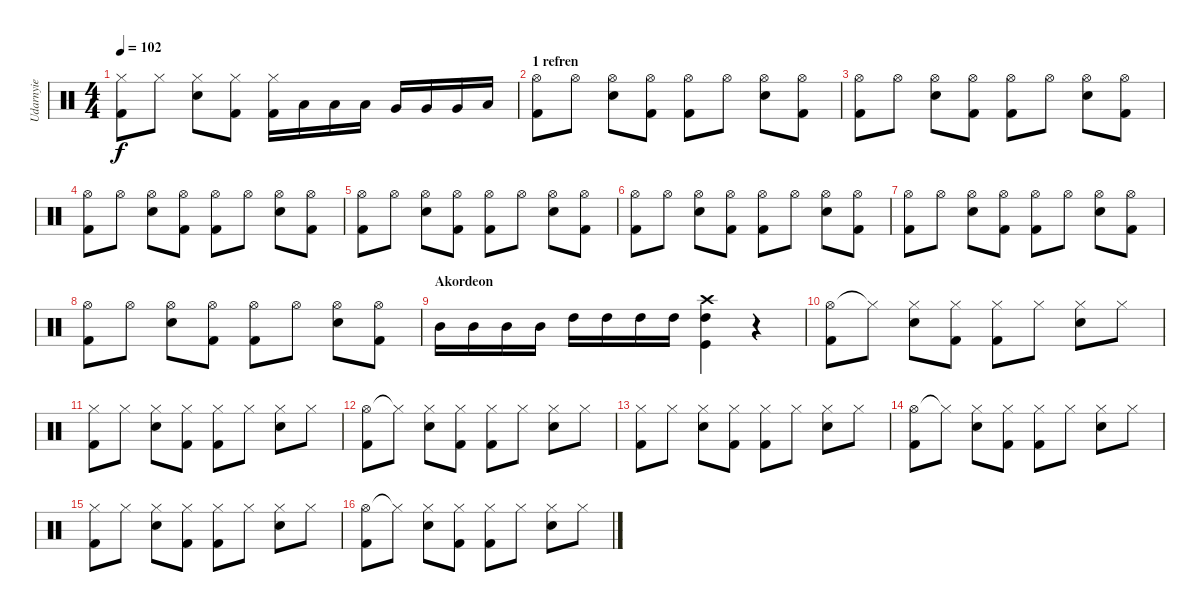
\track ("Udarnyie" "Udarnyie") {instrument percussion}
\staff {score}
\articulation defaults
\ts (4 4)
\tempo 102
\clef neutral
\ks c
("Hi-Hat (closed)" "Kick (hit) 2").8{dy f} "Hi-Hat (closed)".8 ("Hi-Hat (closed)" "Snare (hit) 2").8 ("Hi-Hat (closed)" "Kick (hit) 2").8 ("Hi-Hat (closed)" "Kick (hit) 2").16 "Low Tom (hit)".16 "Low Tom (hit)".16 "Low Tom (hit)".16 "Very Low Tom (hit)".16 "Very Low Tom (hit)".16 "Very Low Tom (hit)".16 "Low Tom (hit)".16 |
\section ("" "1 refren")
("Hi-Hat (open)" "Kick (hit) 2").8 "Hi-Hat (open)".8 ("Hi-Hat (open)" "Snare (hit) 2").8 ("Hi-Hat (open)" "Kick (hit) 2").8 ("Hi-Hat (open)" "Kick (hit) 2").8 "Hi-Hat (open)".8 ("Hi-Hat (open)" "Snare (hit) 2").8 ("Hi-Hat (open)" "Kick (hit) 2").8 |
("Hi-Hat (open)" "Kick (hit) 2").8 "Hi-Hat (open)".8 ("Hi-Hat (open)" "Snare (hit) 2").8 ("Hi-Hat (open)" "Kick (hit) 2").8 ("Hi-Hat (open)" "Kick (hit) 2").8 "Hi-Hat (open)".8 ("Hi-Hat (open)" "Snare (hit) 2").8 ("Hi-Hat (open)" "Kick (hit) 2").8 |
("Hi-Hat (open)" "Kick (hit) 2").8 "Hi-Hat (open)".8 ("Hi-Hat (open)" "Snare (hit) 2").8 ("Hi-Hat (open)" "Kick (hit) 2").8 ("Hi-Hat (open)" "Kick (hit) 2").8 "Hi-Hat (open)".8 ("Hi-Hat (open)" "Snare (hit) 2").8 ("Hi-Hat (open)" "Kick (hit) 2").8 |
("Hi-Hat (open)" "Kick (hit) 2").8 "Hi-Hat (open)".8 ("Hi-Hat (open)" "Snare (hit) 2").8 ("Hi-Hat (open)" "Kick (hit) 2").8 ("Hi-Hat (open)" "Kick (hit) 2").8 "Hi-Hat (open)".8 ("Hi-Hat (open)" "Snare (hit) 2").8 ("Hi-Hat (open)" "Kick (hit) 2").8 |
("Hi-Hat (open)" "Kick (hit) 2").8 "Hi-Hat (open)".8 ("Hi-Hat (open)" "Snare (hit) 2").8 ("Hi-Hat (open)" "Kick (hit) 2").8 ("Hi-Hat (open)" "Kick (hit) 2").8 "Hi-Hat (open)".8 ("Hi-Hat (open)" "Snare (hit) 2").8 ("Hi-Hat (open)" "Kick (hit) 2").8 |
("Hi-Hat (open)" "Kick (hit) 2").8 "Hi-Hat (open)".8 ("Hi-Hat (open)" "Snare (hit) 2").8 ("Hi-Hat (open)" "Kick (hit) 2").8 ("Hi-Hat (open)" "Kick (hit) 2").8 "Hi-Hat (open)".8 ("Hi-Hat (open)" "Snare (hit) 2").8 ("Hi-Hat (open)" "Kick (hit) 2").8 |
("Hi-Hat (open)" "Kick (hit) 2").8 "Hi-Hat (open)".8 ("Hi-Hat (open)" "Snare (hit) 2").8 ("Hi-Hat (open)" "Kick (hit) 2").8 ("Hi-Hat (open)" "Kick (hit) 2").8 "Hi-Hat (open)".8 ("Hi-Hat (open)" "Snare (hit) 2").8 ("Hi-Hat (open)" "Kick (hit) 2").8 |
\section ("" "Akordeon")
"Mid Tom (hit)".16 "Mid Tom (hit)".16 "Mid Tom (hit)".16 "Mid Tom (hit)".16 "High Tom (hit)".16 "High Tom (hit)".16 "High Tom (hit)".16 "High Tom (hit)".16 ("Kick (hit)" "High Tom (hit)" "Crash high (hit)").4 r.4 |
("Hi-Hat (open)" "Kick (hit) 2").8 "Hi-Hat (closed)"{t}.8 ("Hi-Hat (closed)" "Snare (hit) 2").8 ("Hi-Hat (closed)" "Kick (hit) 2").8 ("Hi-Hat (closed)" "Kick (hit) 2").8 "Hi-Hat (closed)".8 ("Hi-Hat (closed)" "Snare (hit) 2").8 "Hi-Hat (closed)".8 |
("Hi-Hat (closed)" "Kick (hit) 2").8 "Hi-Hat (closed)".8 ("Hi-Hat (closed)" "Snare (hit) 2").8 ("Hi-Hat (closed)" "Kick (hit) 2").8 ("Hi-Hat (closed)" "Kick (hit) 2").8 "Hi-Hat (closed)".8 ("Hi-Hat (closed)" "Snare (hit) 2").8 "Hi-Hat (closed)".8 |
("Hi-Hat (open)" "Kick (hit) 2").8 "Hi-Hat (closed)"{t}.8 ("Hi-Hat (closed)" "Snare (hit) 2").8 ("Hi-Hat (closed)" "Kick (hit) 2").8 ("Hi-Hat (closed)" "Kick (hit) 2").8 "Hi-Hat (closed)".8 ("Hi-Hat (closed)" "Snare (hit) 2").8 "Hi-Hat (closed)".8 |
("Hi-Hat (closed)" "Kick (hit) 2").8 "Hi-Hat (closed)".8 ("Hi-Hat (closed)" "Snare (hit) 2").8 ("Hi-Hat (closed)" "Kick (hit) 2").8 ("Hi-Hat (closed)" "Kick (hit) 2").8 "Hi-Hat (closed)".8 ("Hi-Hat (closed)" "Snare (hit) 2").8 "Hi-Hat (closed)".8 |
("Hi-Hat (open)" "Kick (hit) 2").8 "Hi-Hat (closed)"{t}.8 ("Hi-Hat (closed)" "Snare (hit) 2").8 ("Hi-Hat (closed)" "Kick (hit) 2").8 ("Hi-Hat (closed)" "Kick (hit) 2").8 "Hi-Hat (closed)".8 ("Hi-Hat (closed)" "Snare (hit) 2").8 "Hi-Hat (closed)".8 |
("Hi-Hat (closed)" "Kick (hit) 2").8 "Hi-Hat (closed)".8 ("Hi-Hat (closed)" "Snare (hit) 2").8 ("Hi-Hat (closed)" "Kick (hit) 2").8 ("Hi-Hat (closed)" "Kick (hit) 2").8 "Hi-Hat (closed)".8 ("Hi-Hat (closed)" "Snare (hit) 2").8 "Hi-Hat (closed)".8 |
("Hi-Hat (open)" "Kick (hit) 2").8 "Hi-Hat (closed)"{t}.8 ("Hi-Hat (closed)" "Snare (hit) 2").8 ("Hi-Hat (closed)" "Kick (hit) 2").8 ("Hi-Hat (closed)" "Kick (hit) 2").8 "Hi-Hat (closed)".8 ("Hi-Hat (closed)" "Snare (hit) 2").8 "Hi-Hat (closed)".8
